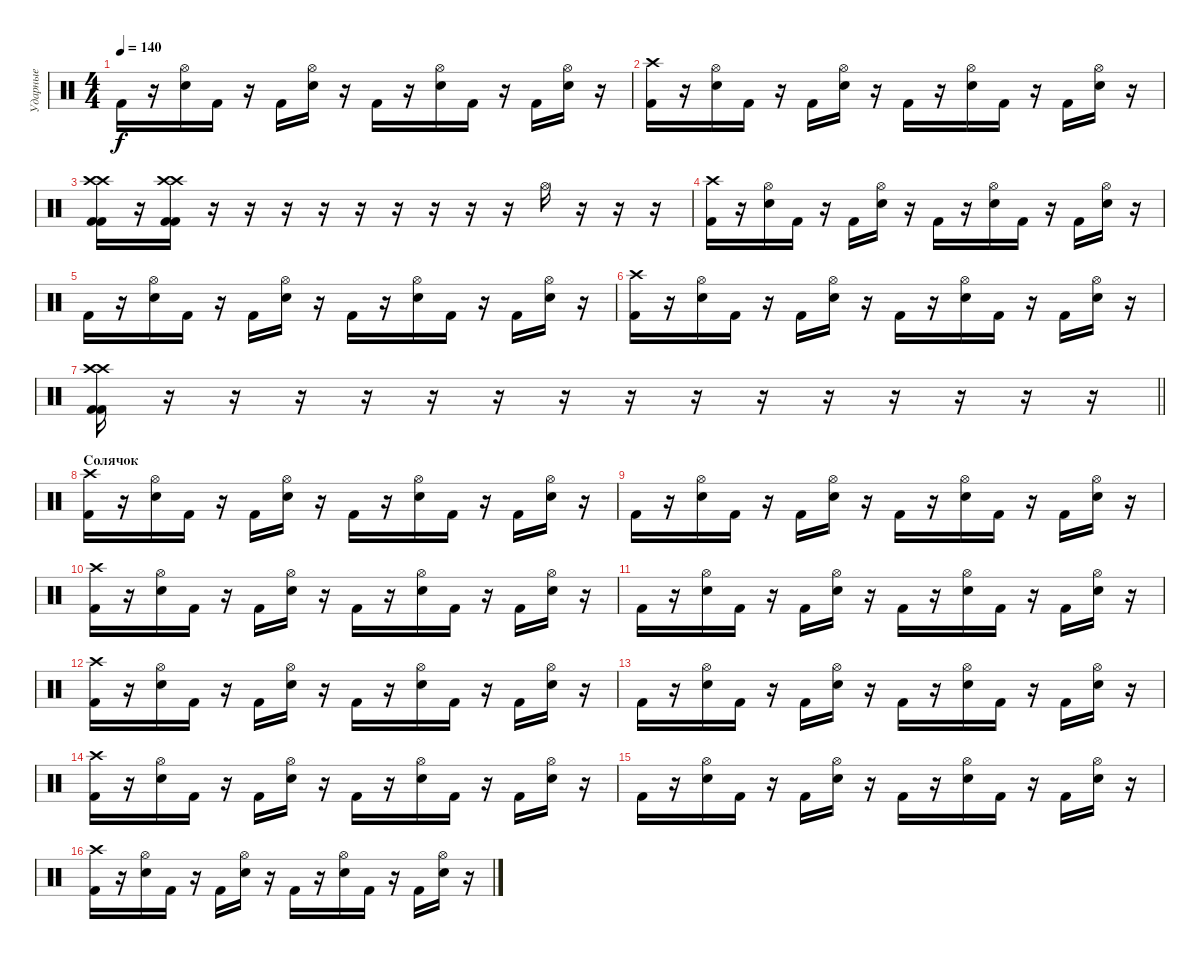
\track ("Ударные" "Ударные") {instrument percussion}
\staff {score}
\articulation defaults
\ts (4 4)
\tempo 140
\clef neutral
\ks c "Kick (hit) 2".16{dy f}
r.16 ("Electric Snare (hit)" "Hi-Hat (open)").16 "Kick (hit) 2".16 r.16 "Kick (hit) 2".16 ("Electric Snare (hit)" "Hi-Hat (open)").16 r.16 "Kick (hit) 2".16 r.16 ("Electric Snare (hit)" "Hi-Hat (open)").16 "Kick (hit) 2".16 r.16 "Kick (hit) 2".16 ("Electric Snare (hit)" "Hi-Hat (open)").16 r.16 |
("Kick (hit) 2" "Crash high (hit)").16 r.16 ("Electric Snare (hit)" "Hi-Hat (open)").16 "Kick (hit) 2".16 r.16 "Kick (hit) 2".16 ("Electric Snare (hit)" "Hi-Hat (open)").16 r.16 "Kick (hit) 2".16 r.16 ("Electric Snare (hit)" "Hi-Hat (open)").16 "Kick (hit) 2".16 r.16 "Kick (hit) 2".16 ("Electric Snare (hit)" "Hi-Hat (open)").16 r.16 |
("Kick (hit) 2" "Kick (hit) 2" "Crash high (hit)" "Crash high (hit)").16 r.16 ("Kick (hit) 2" "Kick (hit) 2" "Crash high (hit)" "Crash high (hit)").16 r.16 r.16 r.16 r.16 r.16 r.16 r.16 r.16 r.16 "Hi-Hat (open)".16 r.16 r.16 r.16 |
("Kick (hit) 2" "Crash high (hit)").16 r.16 ("Electric Snare (hit)" "Hi-Hat (open)").16 "Kick (hit) 2".16 r.16 "Kick (hit) 2".16 ("Electric Snare (hit)" "Hi-Hat (open)").16 r.16 "Kick (hit) 2".16 r.16 ("Electric Snare (hit)" "Hi-Hat (open)").16 "Kick (hit) 2".16 r.16 "Kick (hit) 2".16 ("Electric Snare (hit)" "Hi-Hat (open)").16 r.16 |
"Kick (hit) 2".16 r.16 ("Electric Snare (hit)" "Hi-Hat (open)").16 "Kick (hit) 2".16 r.16 "Kick (hit) 2".16 ("Electric Snare (hit)" "Hi-Hat (open)").16 r.16 "Kick (hit) 2".16 r.16 ("Electric Snare (hit)" "Hi-Hat (open)").16 "Kick (hit) 2".16 r.16 "Kick (hit) 2".16 ("Electric Snare (hit)" "Hi-Hat (open)").16 r.16 |
("Kick (hit) 2" "Crash high (hit)").16 r.16 ("Electric Snare (hit)" "Hi-Hat (open)").16 "Kick (hit) 2".16 r.16 "Kick (hit) 2".16 ("Electric Snare (hit)" "Hi-Hat (open)").16 r.16 "Kick (hit) 2".16 r.16 ("Electric Snare (hit)" "Hi-Hat (open)").16 "Kick (hit) 2".16 r.16 "Kick (hit) 2".16 ("Electric Snare (hit)" "Hi-Hat (open)").16 r.16 |
\barLineRight lightlight
("Kick (hit) 2" "Crash high (hit)" "Kick (hit) 2" "Crash high (hit)").16 r.16 r.16 r.16 r.16 r.16 r.16 r.16 r.16 r.16 r.16 r.16 r.16 r.16 r.16 r.16 |
\section ("" "Солячок")
("Kick (hit) 2" "Crash high (hit)").16 r.16 ("Electric Snare (hit)" "Hi-Hat (open)").16 "Kick (hit) 2".16 r.16 "Kick (hit) 2".16 ("Electric Snare (hit)" "Hi-Hat (open)").16 r.16 "Kick (hit) 2".16 r.16 ("Electric Snare (hit)" "Hi-Hat (open)").16 "Kick (hit) 2".16 r.16 "Kick (hit) 2".16 ("Electric Snare (hit)" "Hi-Hat (open)").16 r.16 |
"Kick (hit) 2".16 r.16 ("Electric Snare (hit)" "Hi-Hat (open)").16 "Kick (hit) 2".16 r.16 "Kick (hit) 2".16 ("Electric Snare (hit)" "Hi-Hat (open)").16 r.16 "Kick (hit) 2".16 r.16 ("Electric Snare (hit)" "Hi-Hat (open)").16 "Kick (hit) 2".16 r.16 "Kick (hit) 2".16 ("Electric Snare (hit)" "Hi-Hat (open)").16 r.16 |
("Kick (hit) 2" "Crash high (hit)").16 r.16 ("Electric Snare (hit)" "Hi-Hat (open)").16 "Kick (hit) 2".16 r.16 "Kick (hit) 2".16 ("Electric Snare (hit)" "Hi-Hat (open)").16 r.16 "Kick (hit) 2".16 r.16 ("Electric Snare (hit)" "Hi-Hat (open)").16 "Kick (hit) 2".16 r.16 "Kick (hit) 2".16 ("Electric Snare (hit)" "Hi-Hat (open)").16 r.16 |
"Kick (hit) 2".16 r.16 ("Electric Snare (hit)" "Hi-Hat (open)").16 "Kick (hit) 2".16 r.16 "Kick (hit) 2".16 ("Electric Snare (hit)" "Hi-Hat (open)").16 r.16 "Kick (hit) 2".16 r.16 ("Electric Snare (hit)" "Hi-Hat (open)").16 "Kick (hit) 2".16 r.16 "Kick (hit) 2".16 ("Electric Snare (hit)" "Hi-Hat (open)").16 r.16 |
("Kick (hit) 2" "Crash high (hit)").16 r.16 ("Electric Snare (hit)" "Hi-Hat (open)").16 "Kick (hit) 2".16 r.16 "Kick (hit) 2".16 ("Electric Snare (hit)" "Hi-Hat (open)").16 r.16 "Kick (hit) 2".16 r.16 ("Electric Snare (hit)" "Hi-Hat (open)").16 "Kick (hit) 2".16 r.16 "Kick (hit) 2".16 ("Electric Snare (hit)" "Hi-Hat (open)").16 r.16 |
"Kick (hit) 2".16 r.16 ("Electric Snare (hit)" "Hi-Hat (open)").16 "Kick (hit) 2".16 r.16 "Kick (hit) 2".16 ("Electric Snare (hit)" "Hi-Hat (open)").16 r.16 "Kick (hit) 2".16 r.16 ("Electric Snare (hit)" "Hi-Hat (open)").16 "Kick (hit) 2".16 r.16 "Kick (hit) 2".16 ("Electric Snare (hit)" "Hi-Hat (open)").16 r.16 |
("Kick (hit) 2" "Crash high (hit)").16 r.16 ("Electric Snare (hit)" "Hi-Hat (open)").16 "Kick (hit) 2".16 r.16 "Kick (hit) 2".16 ("Electric Snare (hit)" "Hi-Hat (open)").16 r.16 "Kick (hit) 2".16 r.16 ("Electric Snare (hit)" "Hi-Hat (open)").16 "Kick (hit) 2".16 r.16 "Kick (hit) 2".16 ("Electric Snare (hit)" "Hi-Hat (open)").16 r.16 |
"Kick (hit) 2".16 r.16 ("Electric Snare (hit)" "Hi-Hat (open)").16 "Kick (hit) 2".16 r.16 "Kick (hit) 2".16 ("Electric Snare (hit)" "Hi-Hat (open)").16 r.16 "Kick (hit) 2".16 r.16 ("Electric Snare (hit)" "Hi-Hat (open)").16 "Kick (hit) 2".16 r.16 "Kick (hit) 2".16 ("Electric Snare (hit)" "Hi-Hat (open)").16 r.16 |
("Kick (hit) 2" "Crash high (hit)").16 r.16 ("Electric Snare (hit)" "Hi-Hat (open)").16 "Kick (hit) 2".16 r.16 "Kick (hit) 2".16 ("Electric Snare (hit)" "Hi-Hat (open)").16 r.16 "Kick (hit) 2".16 r.16 ("Electric Snare (hit)" "Hi-Hat (open)").16 "Kick (hit) 2".16 r.16 "Kick (hit) 2".16 ("Electric Snare (hit)" "Hi-Hat (open)").16 r.16
